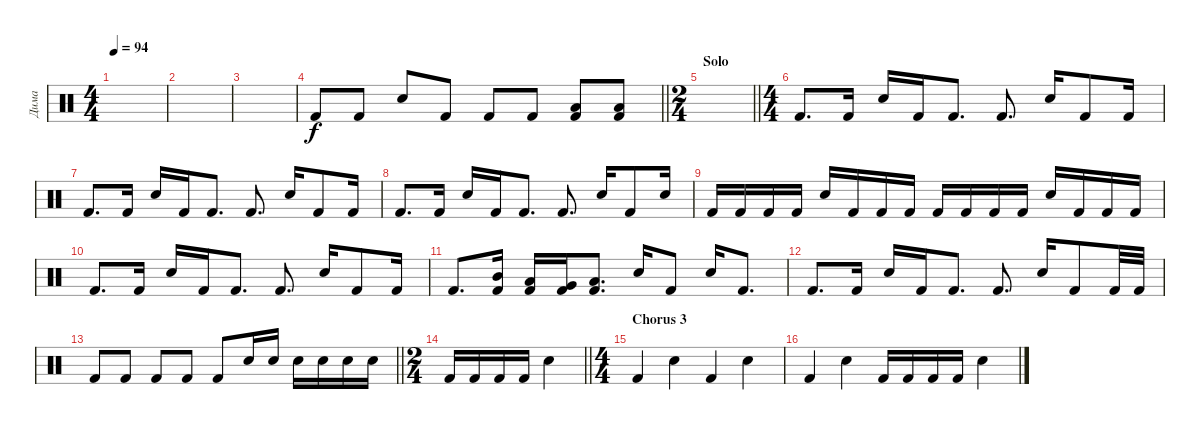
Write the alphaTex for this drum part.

\track ("Дима" "Дима") {instrument percussion}
\staff {score}
\articulation defaults
\ts (4 4)
\tempo 94
\clef neutral
\ks c
|
|
|
\barLineRight lightlight "Kick (hit) 2".8 "Kick (hit) 2".8 "Snare (hit) 2".8 "Kick (hit) 2".8 "Kick (hit) 2".8 "Kick (hit) 2".8
("Kick (hit) 2" "Low Tom (hit)").8 ("Kick (hit) 2" "Low Tom (hit)").8 |
\ts (2 4)
\section ("" "Solo")
\barLineRight lightlight
|
\ts (4 4)
"Kick (hit) 2".8{d} "Kick (hit) 2".16 "Snare (hit) 2".16 "Kick (hit) 2".16 "Kick (hit) 2".8{d} "Kick (hit) 2".8{d} "Snare (hit) 2".16 "Kick (hit) 2".8 "Kick (hit) 2".16 |
"Kick (hit) 2".8{d} "Kick (hit) 2".16 "Snare (hit) 2".16 "Kick (hit) 2".16 "Kick (hit) 2".8{d} "Kick (hit) 2".8{d} "Snare (hit) 2".16 "Kick (hit) 2".8 "Kick (hit) 2".16 |
"Kick (hit) 2".8{d} "Kick (hit) 2".16 "Snare (hit) 2".16 "Kick (hit) 2".16 "Kick (hit) 2".8{d} "Kick (hit) 2".8{d} "Snare (hit) 2".16 "Kick (hit) 2".8 "Snare (hit) 2".16 |
"Kick (hit) 2".16 "Kick (hit) 2".16 "Kick (hit) 2".16 "Kick (hit) 2".16 "Snare (hit) 2".16 "Kick (hit) 2".16 "Kick (hit) 2".16 "Kick (hit) 2".16 "Kick (hit) 2".16 "Kick (hit) 2".16 "Kick (hit) 2".16 "Kick (hit) 2".16 "Snare (hit) 2".16 "Kick (hit) 2".16 "Kick (hit) 2".16 "Kick (hit) 2".16 |
"Kick (hit) 2".8{d} "Kick (hit) 2".16 "Snare (hit) 2".16 "Kick (hit) 2".16 "Kick (hit) 2".8{d} "Kick (hit) 2".8{d} "Snare (hit) 2".16 "Kick (hit) 2".8 "Kick (hit) 2".16 |
"Kick (hit) 2".8{d} ("Kick (hit) 2" "Mid Tom (hit)").16 ("Kick (hit) 2" "Low Tom (hit)").16 ("Kick (hit) 2" "Very Low Tom (hit)").16 ("Kick (hit) 2" "Low Floor Tom (hit)").8{d} "Snare (hit) 2".16 "Kick (hit) 2".8 "Snare (hit) 2".16 "Kick (hit) 2".8{d} |
"Kick (hit) 2".8{d} "Kick (hit) 2".16 "Snare (hit) 2".16 "Kick (hit) 2".16 "Kick (hit) 2".8{d} "Kick (hit) 2".8{d} "Snare (hit) 2".16 "Kick (hit) 2".8 "Kick (hit) 2".32 "Kick (hit) 2".32 |
\barLineRight lightlight "Kick (hit) 2".8 "Kick (hit) 2".8 "Kick (hit) 2".8 "Kick (hit) 2".8 "Kick (hit) 2".8 "Snare (hit) 2".16 "Snare (hit) 2".16 "Snare (hit) 2".16 "Snare (hit) 2".16 "Snare (hit) 2".16 "Snare (hit) 2".16
|
\ts (2 4)
\barLineRight lightlight "Kick (hit) 2".16 "Kick (hit) 2".16 "Kick (hit) 2".16 "Kick (hit) 2".16 "Snare (hit) 2".4
|
\ts (4 4)
\section ("" "Chorus 3")
"Kick (hit) 2".4 "Snare (hit) 2".4 "Kick (hit) 2".4 "Snare (hit) 2".4 |
"Kick (hit) 2".4 "Snare (hit) 2".4 "Kick (hit) 2".16 "Kick (hit) 2".16 "Kick (hit) 2".16 "Kick (hit) 2".16 "Snare (hit) 2".4
